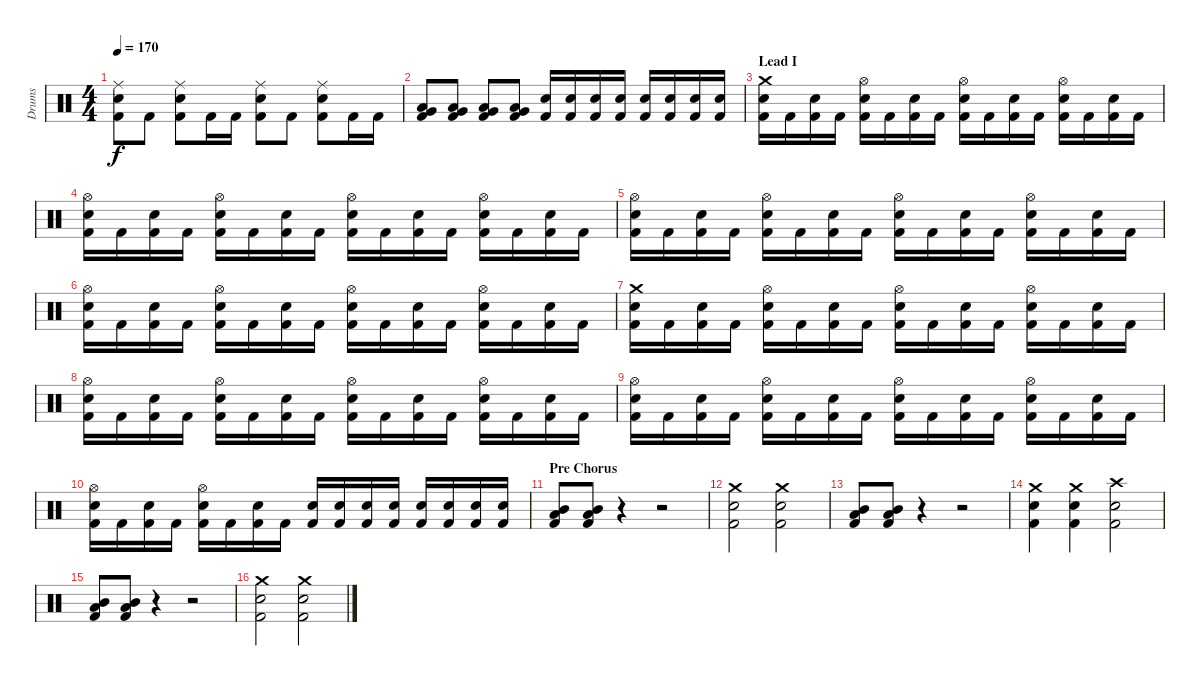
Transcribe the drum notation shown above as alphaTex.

\track ("Drums" "Drums") {instrument percussion}
\staff {score}
\articulation defaults
\ts (4 4)
\tempo 170
\clef neutral
\ks c
("Kick (hit) 2" "Snare (hit) 2" "Ride (middle)").8{dy f} "Kick (hit) 2".8 ("Kick (hit) 2" "Snare (hit) 2" "Ride (middle)").8 "Kick (hit) 2".16 "Kick (hit) 2".16 ("Kick (hit) 2" "Snare (hit) 2" "Ride (middle)").8 "Kick (hit) 2".8 ("Kick (hit) 2" "Snare (hit) 2" "Ride (middle)").8 "Kick (hit) 2".16 "Kick (hit) 2".16 |
("Kick (hit) 2" "Very Low Tom (hit)" "Low Tom (hit)").8 ("Kick (hit) 2" "Very Low Tom (hit)" "Low Tom (hit)").8 ("Kick (hit) 2" "Very Low Tom (hit)" "Low Tom (hit)").8 ("Kick (hit) 2" "Very Low Tom (hit)" "Low Tom (hit)").8 ("Kick (hit) 2" "Snare (hit) 2").16 ("Kick (hit) 2" "Snare (hit) 2").16 ("Kick (hit) 2" "Snare (hit) 2").16 ("Kick (hit) 2" "Snare (hit) 2").16 ("Kick (hit) 2" "Snare (hit) 2").16 ("Kick (hit) 2" "Snare (hit) 2").16 ("Kick (hit) 2" "Snare (hit) 2").16 ("Kick (hit) 2" "Snare (hit) 2").16 |
\section ("" "Lead I")
("Kick (hit) 2" "Snare (hit) 2" "Crash medium (hit)").16 "Kick (hit) 2".16 ("Kick (hit) 2" "Snare (hit) 2").16 "Kick (hit) 2".16 ("Kick (hit) 2" "Snare (hit) 2" "Hi-Hat (open)").16 "Kick (hit) 2".16 ("Kick (hit) 2" "Snare (hit) 2").16 "Kick (hit) 2".16 ("Kick (hit) 2" "Snare (hit) 2" "Hi-Hat (open)").16 "Kick (hit) 2".16 ("Kick (hit) 2" "Snare (hit) 2").16 "Kick (hit) 2".16 ("Kick (hit) 2" "Snare (hit) 2" "Hi-Hat (open)").16 "Kick (hit) 2".16 ("Kick (hit) 2" "Snare (hit) 2").16 "Kick (hit) 2".16 |
("Kick (hit) 2" "Snare (hit) 2" "Hi-Hat (open)").16 "Kick (hit) 2".16 ("Kick (hit) 2" "Snare (hit) 2").16 "Kick (hit) 2".16 ("Kick (hit) 2" "Snare (hit) 2" "Hi-Hat (open)").16 "Kick (hit) 2".16 ("Kick (hit) 2" "Snare (hit) 2").16 "Kick (hit) 2".16 ("Kick (hit) 2" "Snare (hit) 2" "Hi-Hat (open)").16 "Kick (hit) 2".16 ("Kick (hit) 2" "Snare (hit) 2").16 "Kick (hit) 2".16 ("Kick (hit) 2" "Snare (hit) 2" "Hi-Hat (open)").16 "Kick (hit) 2".16 ("Kick (hit) 2" "Snare (hit) 2").16 "Kick (hit) 2".16 |
("Kick (hit) 2" "Snare (hit) 2" "Hi-Hat (open)").16 "Kick (hit) 2".16 ("Kick (hit) 2" "Snare (hit) 2").16 "Kick (hit) 2".16 ("Kick (hit) 2" "Snare (hit) 2" "Hi-Hat (open)").16 "Kick (hit) 2".16 ("Kick (hit) 2" "Snare (hit) 2").16 "Kick (hit) 2".16 ("Kick (hit) 2" "Snare (hit) 2" "Hi-Hat (open)").16 "Kick (hit) 2".16 ("Kick (hit) 2" "Snare (hit) 2").16 "Kick (hit) 2".16 ("Kick (hit) 2" "Snare (hit) 2" "Hi-Hat (open)").16 "Kick (hit) 2".16 ("Kick (hit) 2" "Snare (hit) 2").16 "Kick (hit) 2".16 |
("Kick (hit) 2" "Snare (hit) 2" "Hi-Hat (open)").16 "Kick (hit) 2".16 ("Kick (hit) 2" "Snare (hit) 2").16 "Kick (hit) 2".16 ("Kick (hit) 2" "Snare (hit) 2" "Hi-Hat (open)").16 "Kick (hit) 2".16 ("Kick (hit) 2" "Snare (hit) 2").16 "Kick (hit) 2".16 ("Kick (hit) 2" "Snare (hit) 2" "Hi-Hat (open)").16 "Kick (hit) 2".16 ("Kick (hit) 2" "Snare (hit) 2").16 "Kick (hit) 2".16 ("Kick (hit) 2" "Snare (hit) 2" "Hi-Hat (open)").16 "Kick (hit) 2".16 ("Kick (hit) 2" "Snare (hit) 2").16 "Kick (hit) 2".16 |
("Kick (hit) 2" "Snare (hit) 2" "Crash medium (hit)").16 "Kick (hit) 2".16 ("Kick (hit) 2" "Snare (hit) 2").16 "Kick (hit) 2".16 ("Kick (hit) 2" "Snare (hit) 2" "Hi-Hat (open)").16 "Kick (hit) 2".16 ("Kick (hit) 2" "Snare (hit) 2").16 "Kick (hit) 2".16 ("Kick (hit) 2" "Snare (hit) 2" "Hi-Hat (open)").16 "Kick (hit) 2".16 ("Kick (hit) 2" "Snare (hit) 2").16 "Kick (hit) 2".16 ("Kick (hit) 2" "Snare (hit) 2" "Hi-Hat (open)").16 "Kick (hit) 2".16 ("Kick (hit) 2" "Snare (hit) 2").16 "Kick (hit) 2".16 |
("Kick (hit) 2" "Snare (hit) 2" "Hi-Hat (open)").16 "Kick (hit) 2".16 ("Kick (hit) 2" "Snare (hit) 2").16 "Kick (hit) 2".16 ("Kick (hit) 2" "Snare (hit) 2" "Hi-Hat (open)").16 "Kick (hit) 2".16 ("Kick (hit) 2" "Snare (hit) 2").16 "Kick (hit) 2".16 ("Kick (hit) 2" "Snare (hit) 2" "Hi-Hat (open)").16 "Kick (hit) 2".16 ("Kick (hit) 2" "Snare (hit) 2").16 "Kick (hit) 2".16 ("Kick (hit) 2" "Snare (hit) 2" "Hi-Hat (open)").16 "Kick (hit) 2".16 ("Kick (hit) 2" "Snare (hit) 2").16 "Kick (hit) 2".16 |
("Kick (hit) 2" "Snare (hit) 2" "Hi-Hat (open)").16 "Kick (hit) 2".16 ("Kick (hit) 2" "Snare (hit) 2").16 "Kick (hit) 2".16 ("Kick (hit) 2" "Snare (hit) 2" "Hi-Hat (open)").16 "Kick (hit) 2".16 ("Kick (hit) 2" "Snare (hit) 2").16 "Kick (hit) 2".16 ("Kick (hit) 2" "Snare (hit) 2" "Hi-Hat (open)").16 "Kick (hit) 2".16 ("Kick (hit) 2" "Snare (hit) 2").16 "Kick (hit) 2".16 ("Kick (hit) 2" "Snare (hit) 2" "Hi-Hat (open)").16 "Kick (hit) 2".16 ("Kick (hit) 2" "Snare (hit) 2").16 "Kick (hit) 2".16 |
("Kick (hit) 2" "Snare (hit) 2" "Hi-Hat (open)").16 "Kick (hit) 2".16 ("Kick (hit) 2" "Snare (hit) 2").16 "Kick (hit) 2".16 ("Kick (hit) 2" "Snare (hit) 2" "Hi-Hat (open)").16 "Kick (hit) 2".16 ("Kick (hit) 2" "Snare (hit) 2").16 "Kick (hit) 2".16 ("Kick (hit) 2" "Snare (hit) 2").16 ("Kick (hit) 2" "Snare (hit) 2").16 ("Kick (hit) 2" "Snare (hit) 2").16 ("Kick (hit) 2" "Snare (hit) 2").16 ("Kick (hit) 2" "Snare (hit) 2").16 ("Kick (hit) 2" "Snare (hit) 2").16 ("Kick (hit) 2" "Snare (hit) 2").16 ("Kick (hit) 2" "Snare (hit) 2").16 |
\section ("" "Pre Chorus")
("Kick (hit) 2" "Low Tom (hit)" "Mid Tom (hit)").8 ("Kick (hit) 2" "Low Tom (hit)" "Mid Tom (hit)").8 r.4 r.2 |
("Kick (hit) 2" "Snare (hit) 2" "Crash medium (hit)").2 ("Kick (hit) 2" "Snare (hit) 2" "Crash medium (hit)").2 |
("Kick (hit) 2" "Low Tom (hit)" "Mid Tom (hit)").8 ("Kick (hit) 2" "Low Tom (hit)" "Mid Tom (hit)").8 r.4 r.2 |
("Kick (hit) 2" "Snare (hit) 2" "Crash medium (hit)").4 ("Kick (hit) 2" "Snare (hit) 2" "Crash medium (hit)").4 ("Kick (hit) 2" "Snare (hit) 2" "Crash high (hit)").2 |
("Kick (hit) 2" "Low Tom (hit)" "Mid Tom (hit)").8 ("Kick (hit) 2" "Low Tom (hit)" "Mid Tom (hit)").8 r.4 r.2 |
("Kick (hit) 2" "Snare (hit) 2" "Crash medium (hit)").2 ("Kick (hit) 2" "Snare (hit) 2" "Crash medium (hit)").2
